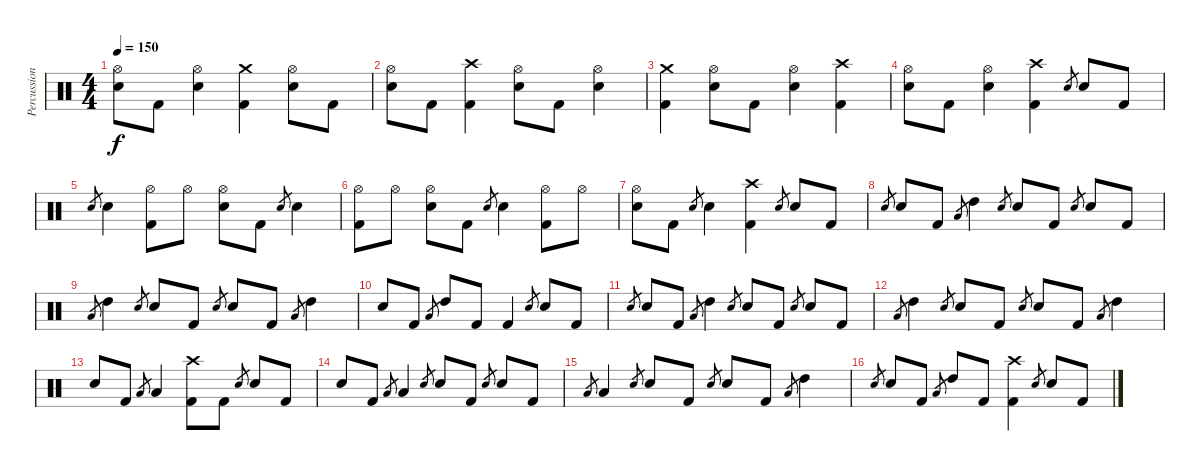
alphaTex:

\track ("Percussion" "Percussion") {instrument percussion}
\staff {score}
\articulation defaults
\ts (4 4)
\tempo 150
\clef neutral
\ks c
("Hi-Hat (open)" "Electric Snare (hit)").8{dy f} "Kick (hit) 2".8 ("Hi-Hat (open)" "Electric Snare (hit)").4 ("Crash medium (hit)" "Kick (hit) 2").4 ("Hi-Hat (open)" "Electric Snare (hit)").8 "Kick (hit) 2".8 |
("Hi-Hat (open)" "Electric Snare (hit)").8 "Kick (hit) 2".8 ("Crash high (hit)" "Kick (hit) 2").4 ("Hi-Hat (open)" "Electric Snare (hit)").8 "Kick (hit) 2".8 ("Hi-Hat (open)" "Electric Snare (hit)").4 |
("Crash medium (hit)" "Kick (hit) 2").4 ("Hi-Hat (open)" "Electric Snare (hit)").8 "Kick (hit) 2".8 ("Hi-Hat (open)" "Electric Snare (hit)").4 ("Crash high (hit)" "Kick (hit) 2").4 |
("Hi-Hat (open)" "Electric Snare (hit)").8 "Kick (hit) 2".8 ("Hi-Hat (open)" "Electric Snare (hit)").4 ("Crash high (hit)" "Kick (hit) 2").4 "Electric Snare (hit)".8{gr} "Electric Snare (hit)".8 "Kick (hit) 2".8 |
"Electric Snare (hit)".8{gr} "Electric Snare (hit)".4 ("Hi-Hat (open)" "Kick (hit) 2").8 "Hi-Hat (open)".8 ("Hi-Hat (open)" "Electric Snare (hit)").8 "Kick (hit) 2".8 "Electric Snare (hit)".8{gr} "Electric Snare (hit)".4 |
("Hi-Hat (open)" "Kick (hit) 2").8 "Hi-Hat (open)".8 ("Hi-Hat (open)" "Electric Snare (hit)").8 "Kick (hit) 2".8 "Electric Snare (hit)".8{gr} "Electric Snare (hit)".4 ("Hi-Hat (open)" "Kick (hit) 2").8 "Hi-Hat (open)".8 |
("Hi-Hat (open)" "Electric Snare (hit)").8 "Kick (hit) 2".8 "Electric Snare (hit)".8{gr} "Electric Snare (hit)".4 ("Crash high (hit)" "Kick (hit) 2").4 "Electric Snare (hit)".8{gr} "Electric Snare (hit)".8 "Kick (hit) 2".8 |
"Electric Snare (hit)".8{gr} "Electric Snare (hit)".8 "Kick (hit) 2".8 "Low Tom (hit)".8{gr} "High Tom (hit)".4 "Electric Snare (hit)".8{gr} "Electric Snare (hit)".8 "Kick (hit) 2".8 "Electric Snare (hit)".8{gr} "Electric Snare (hit)".8 "Kick (hit) 2".8 |
"Low Tom (hit)".8{gr} "High Tom (hit)".4 "Electric Snare (hit)".8{gr} "Electric Snare (hit)".8 "Kick (hit) 2".8 "Electric Snare (hit)".8{gr} "Electric Snare (hit)".8 "Kick (hit) 2".8 "Low Tom (hit)".8{gr} "High Tom (hit)".4 |
"Electric Snare (hit)".8 "Kick (hit) 2".8 "Low Tom (hit)".8{gr} "High Tom (hit)".8 "Kick (hit) 2".8 "Kick (hit) 2".4 "Electric Snare (hit)".8{gr} "Electric Snare (hit)".8 "Kick (hit) 2".8 |
"Electric Snare (hit)".8{gr} "Electric Snare (hit)".8 "Kick (hit) 2".8 "Low Tom (hit)".8{gr} "High Tom (hit)".4 "Electric Snare (hit)".8{gr} "Electric Snare (hit)".8 "Kick (hit) 2".8 "Electric Snare (hit)".8{gr} "Electric Snare (hit)".8 "Kick (hit) 2".8 |
"Low Tom (hit)".8{gr} "High Tom (hit)".4 "Electric Snare (hit)".8{gr} "Electric Snare (hit)".8 "Kick (hit) 2".8 "Electric Snare (hit)".8{gr} "Electric Snare (hit)".8 "Kick (hit) 2".8 "Low Tom (hit)".8{gr} "High Tom (hit)".4 |
"Electric Snare (hit)".8 "Kick (hit) 2".8 "Low Tom (hit)".8{gr} "Low Tom (hit)".4 ("Crash high (hit)" "Kick (hit) 2").8 "Kick (hit) 2".8 "Electric Snare (hit)".8{gr} "Electric Snare (hit)".8 "Kick (hit) 2".8 |
"Electric Snare (hit)".8 "Kick (hit) 2".8 "Low Tom (hit)".8{gr} "Low Tom (hit)".4 "Electric Snare (hit)".8{gr} "Electric Snare (hit)".8 "Kick (hit) 2".8 "Electric Snare (hit)".8{gr} "Electric Snare (hit)".8 "Kick (hit) 2".8 |
"Low Tom (hit)".8{gr} "Low Tom (hit)".4 "Electric Snare (hit)".8{gr} "Electric Snare (hit)".8 "Kick (hit) 2".8 "Electric Snare (hit)".8{gr} "Electric Snare (hit)".8 "Kick (hit) 2".8 "Low Tom (hit)".8{gr} "High Tom (hit)".4 |
"Electric Snare (hit)".8{gr} "Electric Snare (hit)".8 "Kick (hit) 2".8 "Low Tom (hit)".8{gr} "High Tom (hit)".8 "Kick (hit) 2".8 ("Crash high (hit)" "Kick (hit) 2").4 "Electric Snare (hit)".8{gr} "Electric Snare (hit)".8 "Kick (hit) 2".8
